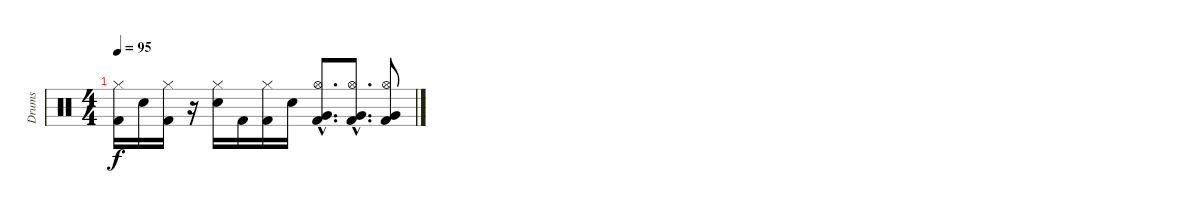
\track ("Drums" "Drums") {instrument percussion}
\staff {score}
\articulation defaults
\ts (4 4)
\tempo 95
\clef neutral
\ks c
("Hi-Hat (closed)" "Kick (hit) 2").16{dy f} "Snare (hit) 2".16 ("Hi-Hat (closed)" "Kick (hit) 2").16 r.16 ("Hi-Hat (closed)" "Snare (hit) 2").16 "Kick (hit) 2".16 ("Hi-Hat (closed)" "Kick (hit) 2").16 "Snare (hit) 2".16 ("Hi-Hat (open)"{hac} "Kick (hit) 2"{hac} "Very Low Tom (hit)"{hac}).8{d} ("Hi-Hat (open)"{hac} "Kick (hit) 2"{hac} "Very Low Tom (hit)"{hac}).8{d} ("Hi-Hat (open)" "Kick (hit) 2" "Very Low Tom (hit)").8
